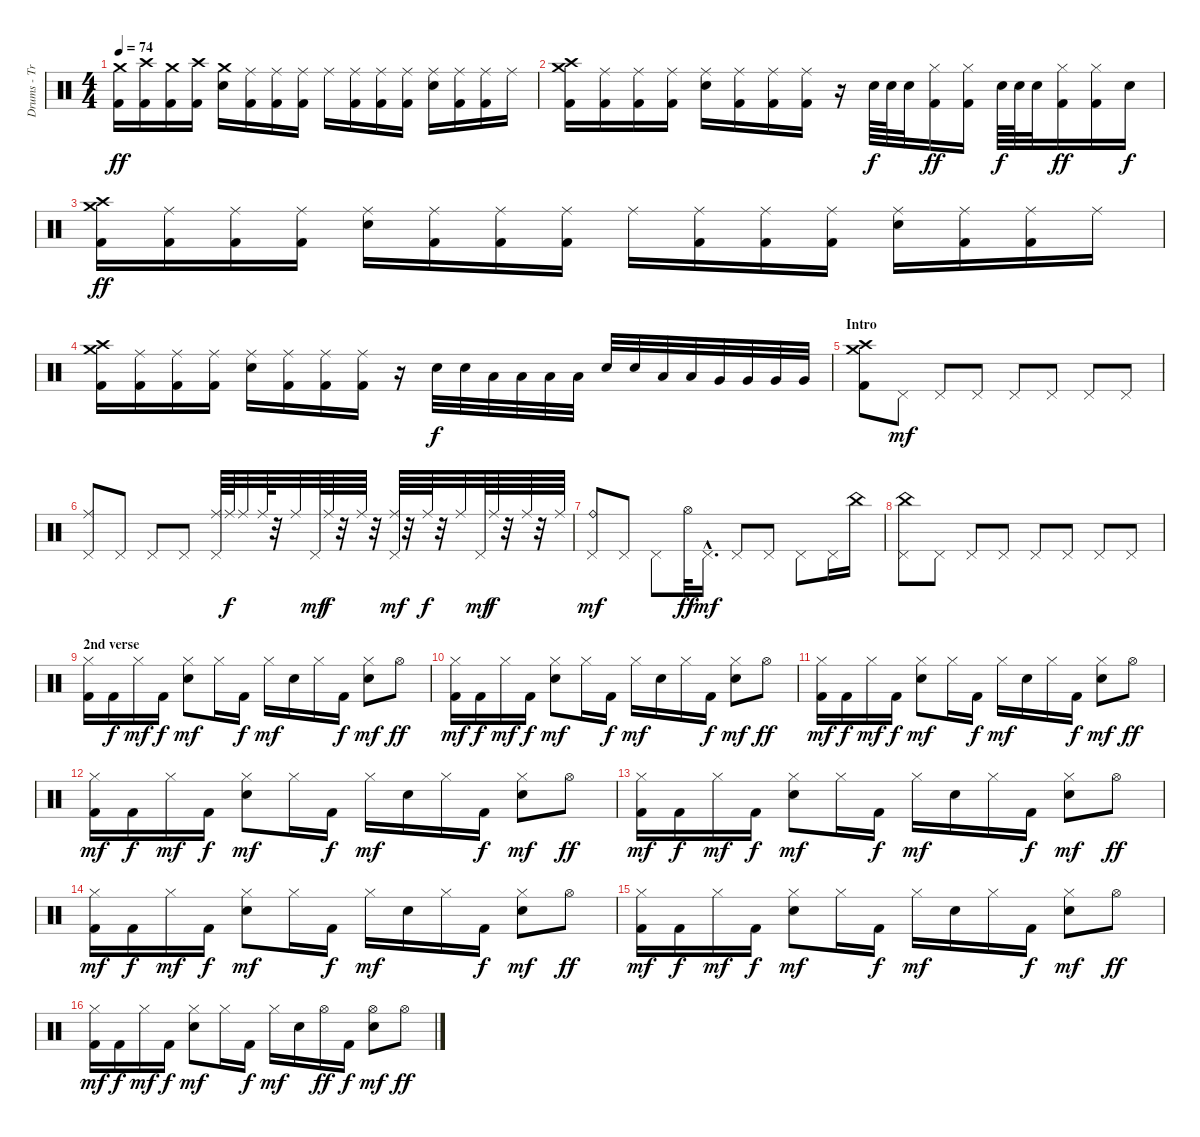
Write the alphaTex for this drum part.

\track ("Drums - Travis" "Drums - Tr") {instrument percussion}
\staff {score}
\articulation defaults
\ts (4 4)
\tempo 74
\clef neutral
\ks c
("Crash medium (hit)" "Kick (hit) 2").16{dy ff} ("Crash high (hit)" "Kick (hit) 2").16 ("Crash medium (hit)" "Kick (hit) 2").16 ("Crash high (hit)" "Kick (hit) 2").16 ("Crash medium (hit)" "Electric Snare (hit)").16 ("Ride (middle)" "Kick (hit) 2").16 ("Ride (middle)" "Kick (hit) 2").16 ("Ride (middle)" "Kick (hit) 2").16 "Ride (middle)".16 ("Ride (middle)" "Kick (hit) 2").16 ("Ride (middle)" "Kick (hit) 2").16 ("Ride (middle)" "Kick (hit) 2").16 ("Ride (middle)" "Electric Snare (hit)").16 ("Ride (middle)" "Kick (hit) 2").16 ("Ride (middle)" "Kick (hit) 2").16 "Ride (middle)".16 |
("Crash medium (hit)" "Crash high (hit)" "Kick (hit) 2").16 ("Ride (middle)" "Kick (hit) 2").16 ("Ride (middle)" "Kick (hit) 2").16 ("Ride (middle)" "Kick (hit) 2").16 ("Ride (middle)" "Electric Snare (hit)").16 ("Ride (middle)" "Kick (hit) 2").16 ("Ride (middle)" "Kick (hit) 2").16 ("Ride (middle)" "Kick (hit) 2").16 r.16 "Electric Snare (hit)".64{dy f} "Electric Snare (hit)".64 "Electric Snare (hit)".32 ("Hi-Hat (closed)" "Kick (hit) 2").16{dy ff} ("Hi-Hat (closed)" "Kick (hit) 2").16 "Electric Snare (hit)".64{dy f} "Electric Snare (hit)".64 "Electric Snare (hit)".32 ("Hi-Hat (closed)" "Kick (hit) 2").16{dy ff} ("Hi-Hat (closed)" "Kick (hit) 2").16 "Electric Snare (hit)".16{dy f} |
("Crash medium (hit)" "Crash high (hit)" "Kick (hit) 2").16{dy ff} ("Ride (middle)" "Kick (hit) 2").16 ("Ride (middle)" "Kick (hit) 2").16 ("Ride (middle)" "Kick (hit) 2").16 ("Ride (middle)" "Electric Snare (hit)").16 ("Ride (middle)" "Kick (hit) 2").16 ("Ride (middle)" "Kick (hit) 2").16 ("Ride (middle)" "Kick (hit) 2").16 "Ride (middle)".16 ("Ride (middle)" "Kick (hit) 2").16 ("Ride (middle)" "Kick (hit) 2").16 ("Ride (middle)" "Kick (hit) 2").16 ("Ride (middle)" "Electric Snare (hit)").16 ("Ride (middle)" "Kick (hit) 2").16 ("Ride (middle)" "Kick (hit) 2").16 "Ride (middle)".16 |
("Crash medium (hit)" "Crash high (hit)" "Kick (hit) 2").16 ("Ride (middle)" "Kick (hit) 2").16 ("Ride (middle)" "Kick (hit) 2").16 ("Ride (middle)" "Kick (hit) 2").16 ("Ride (middle)" "Electric Snare (hit)").16 ("Ride (middle)" "Kick (hit) 2").16 ("Ride (middle)" "Kick (hit) 2").16 ("Ride (middle)" "Kick (hit) 2").16 r.16 "Electric Snare (hit)".32{dy f} "Electric Snare (hit)".32 "Low Tom (hit)".32 "Low Tom (hit)".32 "Low Tom (hit)".32 "Low Tom (hit)".32 "Electric Snare (hit)".32 "Electric Snare (hit)".32 "Low Tom (hit)".32 "Low Tom (hit)".32 "Very Low Tom (hit)".32 "Very Low Tom (hit)".32 "Very Low Tom (hit)".32 "Very Low Tom (hit)".32 |
\section ("" "Intro")
("Crash medium (hit)" "Crash high (hit)" "Kick (hit) 2").8 "Pedal Hi-Hat (hit)".8{dy mf} "Pedal Hi-Hat (hit)".8 "Pedal Hi-Hat (hit)".8 "Pedal Hi-Hat (hit)".8 "Pedal Hi-Hat (hit)".8 "Pedal Hi-Hat (hit)".8 "Pedal Hi-Hat (hit)".8 |
("Ride (middle)" "Pedal Hi-Hat (hit)").8 "Pedal Hi-Hat (hit)".8 "Pedal Hi-Hat (hit)".8 "Pedal Hi-Hat (hit)".8 ("Ride (middle)" "Pedal Hi-Hat (hit)").64 "Ride (middle)".64{dy f} "Ride (middle)".32 "Ride (middle)".64 r.32 "Ride (middle)".32 "Pedal Hi-Hat (hit)".64{dy mf} "Ride (middle)".64{dy f} r.32 "Ride (middle)".64 r.32 ("Ride (middle)" "Pedal Hi-Hat (hit)").64{dy mf} r.32 "Ride (middle)".64{dy f} r.32 "Ride (middle)".32 "Pedal Hi-Hat (hit)".64{dy mf} "Ride (middle)".64{dy f} r.32 "Ride (middle)".64 r.32 "Ride (middle)".64 |
("Ride (bell)" "Pedal Hi-Hat (hit)").8{dy mf} "Pedal Hi-Hat (hit)".8 "Pedal Hi-Hat (hit)".8 "Hi-Hat (open)".32{dy ff} "Pedal Hi-Hat (hit)"{hac}.16{d dy mf} "Pedal Hi-Hat (hit)".8 "Pedal Hi-Hat (hit)".8 "Pedal Hi-Hat (hit)".8 "Pedal Hi-Hat (hit)".16 "China (hit)".16 |
("China (hit)" "Pedal Hi-Hat (hit)").8 "Pedal Hi-Hat (hit)".8 "Pedal Hi-Hat (hit)".8 "Pedal Hi-Hat (hit)".8 "Pedal Hi-Hat (hit)".8 "Pedal Hi-Hat (hit)".8 "Pedal Hi-Hat (hit)".8 "Pedal Hi-Hat (hit)".8 |
\section ("" "2nd verse")
("Hi-Hat (closed)" "Kick (hit) 2").16 "Kick (hit) 2".16{dy f} "Hi-Hat (closed)".16{dy mf} "Kick (hit) 2".16{dy f} ("Hi-Hat (closed)" "Electric Snare (hit)").8{dy mf} "Hi-Hat (closed)".16 "Kick (hit) 2".16{dy f} "Hi-Hat (closed)".16{dy mf} "Electric Snare (hit)".16 "Hi-Hat (closed)".16 "Kick (hit) 2".16{dy f} ("Hi-Hat (closed)" "Electric Snare (hit)").8{dy mf} "Hi-Hat (open)".8{dy ff} |
("Hi-Hat (closed)" "Kick (hit) 2").16{dy mf} "Kick (hit) 2".16{dy f} "Hi-Hat (closed)".16{dy mf} "Kick (hit) 2".16{dy f} ("Hi-Hat (closed)" "Electric Snare (hit)").8{dy mf} "Hi-Hat (closed)".16 "Kick (hit) 2".16{dy f} "Hi-Hat (closed)".16{dy mf} "Electric Snare (hit)".16 "Hi-Hat (closed)".16 "Kick (hit) 2".16{dy f} ("Hi-Hat (closed)" "Electric Snare (hit)").8{dy mf} "Hi-Hat (open)".8{dy ff} |
("Hi-Hat (closed)" "Kick (hit) 2").16{dy mf} "Kick (hit) 2".16{dy f} "Hi-Hat (closed)".16{dy mf} "Kick (hit) 2".16{dy f} ("Hi-Hat (closed)" "Electric Snare (hit)").8{dy mf} "Hi-Hat (closed)".16 "Kick (hit) 2".16{dy f} "Hi-Hat (closed)".16{dy mf} "Electric Snare (hit)".16 "Hi-Hat (closed)".16 "Kick (hit) 2".16{dy f} ("Hi-Hat (closed)" "Electric Snare (hit)").8{dy mf} "Hi-Hat (open)".8{dy ff} |
("Hi-Hat (closed)" "Kick (hit) 2").16{dy mf} "Kick (hit) 2".16{dy f} "Hi-Hat (closed)".16{dy mf} "Kick (hit) 2".16{dy f} ("Hi-Hat (closed)" "Electric Snare (hit)").8{dy mf} "Hi-Hat (closed)".16 "Kick (hit) 2".16{dy f} "Hi-Hat (closed)".16{dy mf} "Electric Snare (hit)".16 "Hi-Hat (closed)".16 "Kick (hit) 2".16{dy f} ("Hi-Hat (closed)" "Electric Snare (hit)").8{dy mf} "Hi-Hat (open)".8{dy ff} |
("Hi-Hat (closed)" "Kick (hit) 2").16{dy mf} "Kick (hit) 2".16{dy f} "Hi-Hat (closed)".16{dy mf} "Kick (hit) 2".16{dy f} ("Hi-Hat (closed)" "Electric Snare (hit)").8{dy mf} "Hi-Hat (closed)".16 "Kick (hit) 2".16{dy f} "Hi-Hat (closed)".16{dy mf} "Electric Snare (hit)".16 "Hi-Hat (closed)".16 "Kick (hit) 2".16{dy f} ("Hi-Hat (closed)" "Electric Snare (hit)").8{dy mf} "Hi-Hat (open)".8{dy ff} |
("Hi-Hat (closed)" "Kick (hit) 2").16{dy mf} "Kick (hit) 2".16{dy f} "Hi-Hat (closed)".16{dy mf} "Kick (hit) 2".16{dy f} ("Hi-Hat (closed)" "Electric Snare (hit)").8{dy mf} "Hi-Hat (closed)".16 "Kick (hit) 2".16{dy f} "Hi-Hat (closed)".16{dy mf} "Electric Snare (hit)".16 "Hi-Hat (closed)".16 "Kick (hit) 2".16{dy f} ("Hi-Hat (closed)" "Electric Snare (hit)").8{dy mf} "Hi-Hat (open)".8{dy ff} |
("Hi-Hat (closed)" "Kick (hit) 2").16{dy mf} "Kick (hit) 2".16{dy f} "Hi-Hat (closed)".16{dy mf} "Kick (hit) 2".16{dy f} ("Hi-Hat (closed)" "Electric Snare (hit)").8{dy mf} "Hi-Hat (closed)".16 "Kick (hit) 2".16{dy f} "Hi-Hat (closed)".16{dy mf} "Electric Snare (hit)".16 "Hi-Hat (closed)".16 "Kick (hit) 2".16{dy f} ("Hi-Hat (closed)" "Electric Snare (hit)").8{dy mf} "Hi-Hat (open)".8{dy ff} |
("Hi-Hat (closed)" "Kick (hit) 2").16{dy mf} "Kick (hit) 2".16{dy f} "Hi-Hat (closed)".16{dy mf} "Kick (hit) 2".16{dy f} ("Hi-Hat (closed)" "Electric Snare (hit)").8{dy mf} "Hi-Hat (closed)".16 "Kick (hit) 2".16{dy f} "Hi-Hat (closed)".16{dy mf} "Electric Snare (hit)".16 "Hi-Hat (open)".16{dy ff} "Kick (hit) 2".16{dy f} ("Hi-Hat (open)" "Electric Snare (hit)").8{dy mf} "Hi-Hat (open)".8{dy ff}
